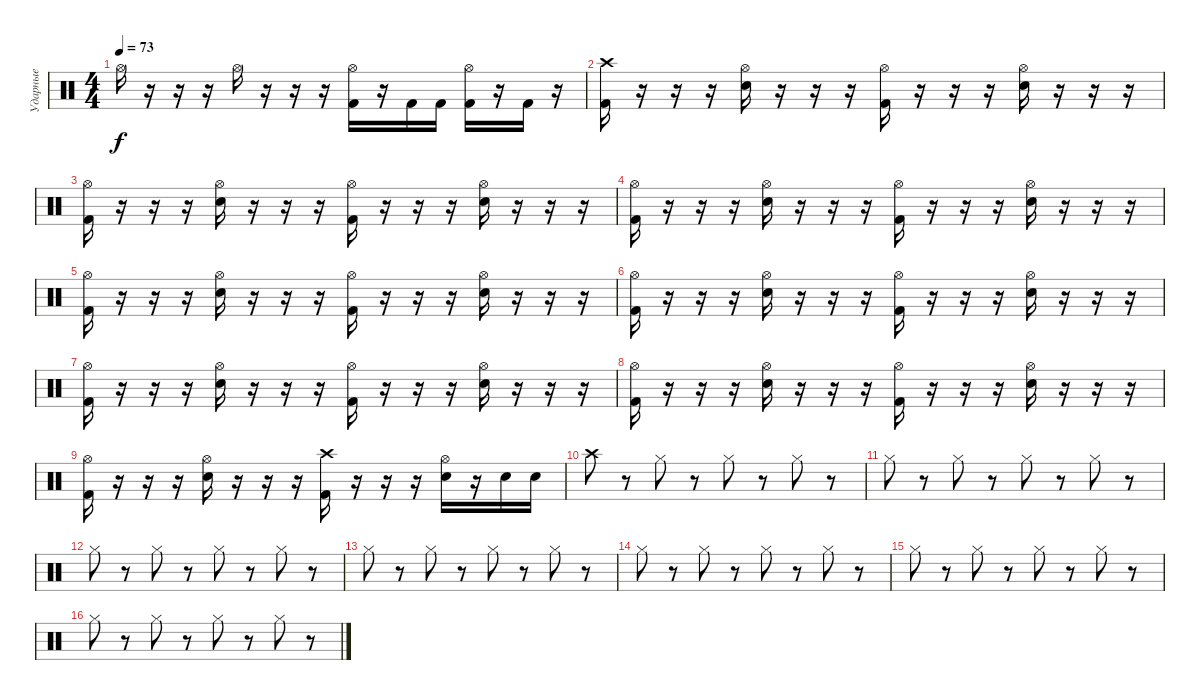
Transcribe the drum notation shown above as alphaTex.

\track ("Ударные" "Ударные") {instrument percussion}
\staff {score}
\articulation defaults
\ts (4 4)
\tempo 73
\clef neutral
\ks c "Hi-Hat (open)".16{dy f}
r.16 r.16 r.16 "Hi-Hat (open)".16 r.16 r.16 r.16 ("Kick (hit) 2" "Hi-Hat (open)").16 r.16 "Kick (hit) 2".16 "Kick (hit) 2".16 ("Kick (hit) 2" "Hi-Hat (open)").16 r.16 "Kick (hit) 2".16 r.16 |
("Kick (hit) 2" "Crash high (hit)").16 r.16 r.16 r.16 ("Electric Snare (hit)" "Hi-Hat (open)").16 r.16 r.16 r.16 ("Kick (hit) 2" "Hi-Hat (open)").16 r.16 r.16 r.16 ("Electric Snare (hit)" "Hi-Hat (open)").16 r.16 r.16 r.16 |
("Kick (hit) 2" "Hi-Hat (open)").16 r.16 r.16 r.16 ("Electric Snare (hit)" "Hi-Hat (open)").16 r.16 r.16 r.16 ("Kick (hit) 2" "Hi-Hat (open)").16 r.16 r.16 r.16 ("Electric Snare (hit)" "Hi-Hat (open)").16 r.16 r.16 r.16 |
("Kick (hit) 2" "Hi-Hat (open)").16 r.16 r.16 r.16 ("Electric Snare (hit)" "Hi-Hat (open)").16 r.16 r.16 r.16 ("Kick (hit) 2" "Hi-Hat (open)").16 r.16 r.16 r.16 ("Electric Snare (hit)" "Hi-Hat (open)").16 r.16 r.16 r.16 |
("Kick (hit) 2" "Hi-Hat (open)").16 r.16 r.16 r.16 ("Electric Snare (hit)" "Hi-Hat (open)").16 r.16 r.16 r.16 ("Kick (hit) 2" "Hi-Hat (open)").16 r.16 r.16 r.16 ("Electric Snare (hit)" "Hi-Hat (open)").16 r.16 r.16 r.16 |
("Kick (hit) 2" "Hi-Hat (open)").16 r.16 r.16 r.16 ("Electric Snare (hit)" "Hi-Hat (open)").16 r.16 r.16 r.16 ("Kick (hit) 2" "Hi-Hat (open)").16 r.16 r.16 r.16 ("Electric Snare (hit)" "Hi-Hat (open)").16 r.16 r.16 r.16 |
("Kick (hit) 2" "Hi-Hat (open)").16 r.16 r.16 r.16 ("Electric Snare (hit)" "Hi-Hat (open)").16 r.16 r.16 r.16 ("Kick (hit) 2" "Hi-Hat (open)").16 r.16 r.16 r.16 ("Electric Snare (hit)" "Hi-Hat (open)").16 r.16 r.16 r.16 |
("Kick (hit) 2" "Hi-Hat (open)").16 r.16 r.16 r.16 ("Electric Snare (hit)" "Hi-Hat (open)").16 r.16 r.16 r.16 ("Kick (hit) 2" "Hi-Hat (open)").16 r.16 r.16 r.16 ("Electric Snare (hit)" "Hi-Hat (open)").16 r.16 r.16 r.16 |
("Kick (hit) 2" "Hi-Hat (open)").16 r.16 r.16 r.16 ("Electric Snare (hit)" "Hi-Hat (open)").16 r.16 r.16 r.16 ("Kick (hit) 2" "Crash high (hit)").16 r.16 r.16 r.16 ("Electric Snare (hit)" "Hi-Hat (open)").16 r.16 "Electric Snare (hit)".16 "Electric Snare (hit)".16 |
"Crash high (hit)".8 r.8 "Hi-Hat (closed)".8 r.8 "Hi-Hat (closed)".8 r.8 "Hi-Hat (closed)".8 r.8 |
"Hi-Hat (closed)".8 r.8 "Hi-Hat (closed)".8 r.8 "Hi-Hat (closed)".8 r.8 "Hi-Hat (closed)".8 r.8 |
"Hi-Hat (closed)".8 r.8 "Hi-Hat (closed)".8 r.8 "Hi-Hat (closed)".8 r.8 "Hi-Hat (closed)".8 r.8 |
"Hi-Hat (closed)".8 r.8 "Hi-Hat (closed)".8 r.8 "Hi-Hat (closed)".8 r.8 "Hi-Hat (closed)".8 r.8 |
"Hi-Hat (closed)".8 r.8 "Hi-Hat (closed)".8 r.8 "Hi-Hat (closed)".8 r.8 "Hi-Hat (closed)".8 r.8 |
"Hi-Hat (closed)".8 r.8 "Hi-Hat (closed)".8 r.8 "Hi-Hat (closed)".8 r.8 "Hi-Hat (closed)".8 r.8 |
"Hi-Hat (closed)".8 r.8 "Hi-Hat (closed)".8 r.8 "Hi-Hat (closed)".8 r.8 "Hi-Hat (closed)".8 r.8
